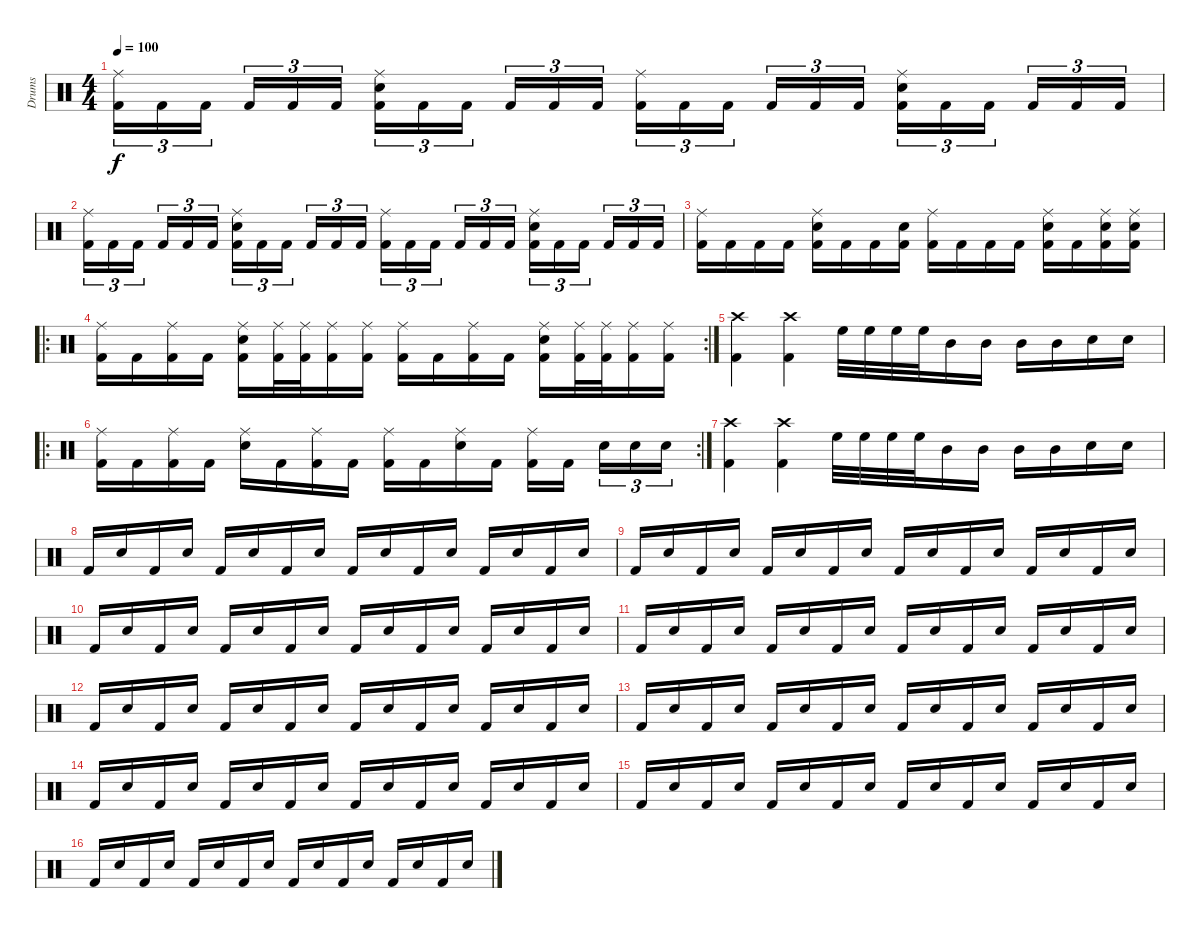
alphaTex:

\track ("Drums" "Drums") {instrument percussion}
\staff {score}
\articulation defaults
\ts (4 4)
\tempo 100
\clef neutral
\ks c
("Ride (middle)" "Kick (hit) 2").16{tu (3 2) dy f} "Kick (hit) 2".16{tu (3 2)} "Kick (hit) 2".16{tu (3 2)} "Kick (hit) 2".16{tu (3 2)} "Kick (hit) 2".16{tu (3 2)} "Kick (hit) 2".16{tu (3 2)} ("Ride (middle)" "Snare (hit) 2" "Kick (hit) 2").16{tu (3 2)} "Kick (hit) 2".16{tu (3 2)} "Kick (hit) 2".16{tu (3 2)} "Kick (hit) 2".16{tu (3 2)} "Kick (hit) 2".16{tu (3 2)} "Kick (hit) 2".16{tu (3 2)} ("Ride (middle)" "Kick (hit) 2").16{tu (3 2)} "Kick (hit) 2".16{tu (3 2)} "Kick (hit) 2".16{tu (3 2)} "Kick (hit) 2".16{tu (3 2)} "Kick (hit) 2".16{tu (3 2)} "Kick (hit) 2".16{tu (3 2)} ("Ride (middle)" "Snare (hit) 2" "Kick (hit) 2").16{tu (3 2)} "Kick (hit) 2".16{tu (3 2)} "Kick (hit) 2".16{tu (3 2)} "Kick (hit) 2".16{tu (3 2)} "Kick (hit) 2".16{tu (3 2)} "Kick (hit) 2".16{tu (3 2)} |
("Ride (middle)" "Kick (hit) 2").16{tu (3 2)} "Kick (hit) 2".16{tu (3 2)} "Kick (hit) 2".16{tu (3 2)} "Kick (hit) 2".16{tu (3 2)} "Kick (hit) 2".16{tu (3 2)} "Kick (hit) 2".16{tu (3 2)} ("Ride (middle)" "Snare (hit) 2" "Kick (hit) 2").16{tu (3 2)} "Kick (hit) 2".16{tu (3 2)} "Kick (hit) 2".16{tu (3 2)} "Kick (hit) 2".16{tu (3 2)} "Kick (hit) 2".16{tu (3 2)} "Kick (hit) 2".16{tu (3 2)} ("Ride (middle)" "Kick (hit) 2").16{tu (3 2)} "Kick (hit) 2".16{tu (3 2)} "Kick (hit) 2".16{tu (3 2)} "Kick (hit) 2".16{tu (3 2)} "Kick (hit) 2".16{tu (3 2)} "Kick (hit) 2".16{tu (3 2)} ("Ride (middle)" "Snare (hit) 2" "Kick (hit) 2").16{tu (3 2)} "Kick (hit) 2".16{tu (3 2)} "Kick (hit) 2".16{tu (3 2)} "Kick (hit) 2".16{tu (3 2)} "Kick (hit) 2".16{tu (3 2)} "Kick (hit) 2".16{tu (3 2)} |
("Ride (middle)" "Kick (hit) 2").16 "Kick (hit) 2".16 "Kick (hit) 2".16 "Kick (hit) 2".16 ("Ride (middle)" "Snare (hit) 2" "Kick (hit) 2").16 "Kick (hit) 2".16 "Kick (hit) 2".16 ("Snare (hit) 2" "Kick (hit) 2").16 ("Ride (middle)" "Kick (hit) 2").16 "Kick (hit) 2".16 "Kick (hit) 2".16 "Kick (hit) 2".16 ("Ride (middle)" "Snare (hit) 2" "Kick (hit) 2").16 "Kick (hit) 2".16 ("Ride (middle)" "Snare (hit) 2" "Kick (hit) 2").16 ("Ride (middle)" "Snare (hit) 2" "Kick (hit) 2").16 |
\ro
\rc 2
("Ride (middle)" "Kick (hit) 2").16 "Kick (hit) 2".16 ("Ride (middle)" "Kick (hit) 2").16 "Kick (hit) 2".16 ("Ride (middle)" "Snare (hit) 2" "Kick (hit) 2").16 ("Ride (middle)" "Kick (hit) 2").32 ("Ride (middle)" "Kick (hit) 2").32 ("Ride (middle)" "Kick (hit) 2").16 ("Ride (middle)" "Kick (hit) 2").16 ("Ride (middle)" "Kick (hit) 2").16 "Kick (hit) 2".16 ("Ride (middle)" "Kick (hit) 2").16 "Kick (hit) 2".16 ("Ride (middle)" "Snare (hit) 2" "Kick (hit) 2").16 ("Ride (middle)" "Kick (hit) 2").32 ("Ride (middle)" "Kick (hit) 2").32 ("Ride (middle)" "Kick (hit) 2").16 ("Ride (middle)" "Kick (hit) 2").16 |
("Crash high (hit)" "Kick (hit) 2").4 ("Crash high (hit)" "Kick (hit) 2").4 "High Floor Tom (hit)".32 "High Floor Tom (hit)".32 "High Floor Tom (hit)".32 "High Floor Tom (hit)".32 "Mid Tom (hit)".16 "Mid Tom (hit)".16 "Mid Tom (hit)".16 "Mid Tom (hit)".16 "Snare (hit) 2".16 "Snare (hit) 2".16 |
\ro
\rc 2
("Ride (middle)" "Kick (hit) 2").16 "Kick (hit) 2".16 ("Ride (middle)" "Kick (hit) 2").16 "Kick (hit) 2".16 ("Ride (middle)" "Snare (hit) 2").16 "Kick (hit) 2".16 ("Ride (middle)" "Kick (hit) 2").16 "Kick (hit) 2".16 ("Ride (middle)" "Kick (hit) 2").16 "Kick (hit) 2".16 ("Ride (middle)" "Snare (hit) 2").16 "Kick (hit) 2".16 ("Ride (middle)" "Kick (hit) 2").16 "Kick (hit) 2".16 "Snare (hit) 2".16{tu (3 2)} "Snare (hit) 2".16{tu (3 2)} "Snare (hit) 2".16{tu (3 2)} |
("Crash high (hit)" "Kick (hit) 2").4 ("Crash high (hit)" "Kick (hit) 2").4 "High Floor Tom (hit)".32 "High Floor Tom (hit)".32 "High Floor Tom (hit)".32 "High Floor Tom (hit)".32 "Mid Tom (hit)".16 "Mid Tom (hit)".16 "Mid Tom (hit)".16 "Mid Tom (hit)".16 "Snare (hit) 2".16 "Snare (hit) 2".16 |
"Kick (hit) 2".16 "Snare (hit) 2".16 "Kick (hit) 2".16 "Snare (hit) 2".16 "Kick (hit) 2".16 "Snare (hit) 2".16 "Kick (hit) 2".16 "Snare (hit) 2".16 "Kick (hit) 2".16 "Snare (hit) 2".16 "Kick (hit) 2".16 "Snare (hit) 2".16 "Kick (hit) 2".16 "Snare (hit) 2".16 "Kick (hit) 2".16 "Snare (hit) 2".16 |
"Kick (hit) 2".16 "Snare (hit) 2".16 "Kick (hit) 2".16 "Snare (hit) 2".16 "Kick (hit) 2".16 "Snare (hit) 2".16 "Kick (hit) 2".16 "Snare (hit) 2".16 "Kick (hit) 2".16 "Snare (hit) 2".16 "Kick (hit) 2".16 "Snare (hit) 2".16 "Kick (hit) 2".16 "Snare (hit) 2".16 "Kick (hit) 2".16 "Snare (hit) 2".16 |
"Kick (hit) 2".16 "Snare (hit) 2".16 "Kick (hit) 2".16 "Snare (hit) 2".16 "Kick (hit) 2".16 "Snare (hit) 2".16 "Kick (hit) 2".16 "Snare (hit) 2".16 "Kick (hit) 2".16 "Snare (hit) 2".16 "Kick (hit) 2".16 "Snare (hit) 2".16 "Kick (hit) 2".16 "Snare (hit) 2".16 "Kick (hit) 2".16 "Snare (hit) 2".16 |
"Kick (hit) 2".16 "Snare (hit) 2".16 "Kick (hit) 2".16 "Snare (hit) 2".16 "Kick (hit) 2".16 "Snare (hit) 2".16 "Kick (hit) 2".16 "Snare (hit) 2".16 "Kick (hit) 2".16 "Snare (hit) 2".16 "Kick (hit) 2".16 "Snare (hit) 2".16 "Kick (hit) 2".16 "Snare (hit) 2".16 "Kick (hit) 2".16 "Snare (hit) 2".16 |
"Kick (hit) 2".16 "Snare (hit) 2".16 "Kick (hit) 2".16 "Snare (hit) 2".16 "Kick (hit) 2".16 "Snare (hit) 2".16 "Kick (hit) 2".16 "Snare (hit) 2".16 "Kick (hit) 2".16 "Snare (hit) 2".16 "Kick (hit) 2".16 "Snare (hit) 2".16 "Kick (hit) 2".16 "Snare (hit) 2".16 "Kick (hit) 2".16 "Snare (hit) 2".16 |
"Kick (hit) 2".16 "Snare (hit) 2".16 "Kick (hit) 2".16 "Snare (hit) 2".16 "Kick (hit) 2".16 "Snare (hit) 2".16 "Kick (hit) 2".16 "Snare (hit) 2".16 "Kick (hit) 2".16 "Snare (hit) 2".16 "Kick (hit) 2".16 "Snare (hit) 2".16 "Kick (hit) 2".16 "Snare (hit) 2".16 "Kick (hit) 2".16 "Snare (hit) 2".16 |
"Kick (hit) 2".16 "Snare (hit) 2".16 "Kick (hit) 2".16 "Snare (hit) 2".16 "Kick (hit) 2".16 "Snare (hit) 2".16 "Kick (hit) 2".16 "Snare (hit) 2".16 "Kick (hit) 2".16 "Snare (hit) 2".16 "Kick (hit) 2".16 "Snare (hit) 2".16 "Kick (hit) 2".16 "Snare (hit) 2".16 "Kick (hit) 2".16 "Snare (hit) 2".16 |
"Kick (hit) 2".16 "Snare (hit) 2".16 "Kick (hit) 2".16 "Snare (hit) 2".16 "Kick (hit) 2".16 "Snare (hit) 2".16 "Kick (hit) 2".16 "Snare (hit) 2".16 "Kick (hit) 2".16 "Snare (hit) 2".16 "Kick (hit) 2".16 "Snare (hit) 2".16 "Kick (hit) 2".16 "Snare (hit) 2".16 "Kick (hit) 2".16 "Snare (hit) 2".16 |
"Kick (hit) 2".16 "Snare (hit) 2".16 "Kick (hit) 2".16 "Snare (hit) 2".16 "Kick (hit) 2".16 "Snare (hit) 2".16 "Kick (hit) 2".16 "Snare (hit) 2".16 "Kick (hit) 2".16 "Snare (hit) 2".16 "Kick (hit) 2".16 "Snare (hit) 2".16 "Kick (hit) 2".16 "Snare (hit) 2".16 "Kick (hit) 2".16 "Snare (hit) 2".16
